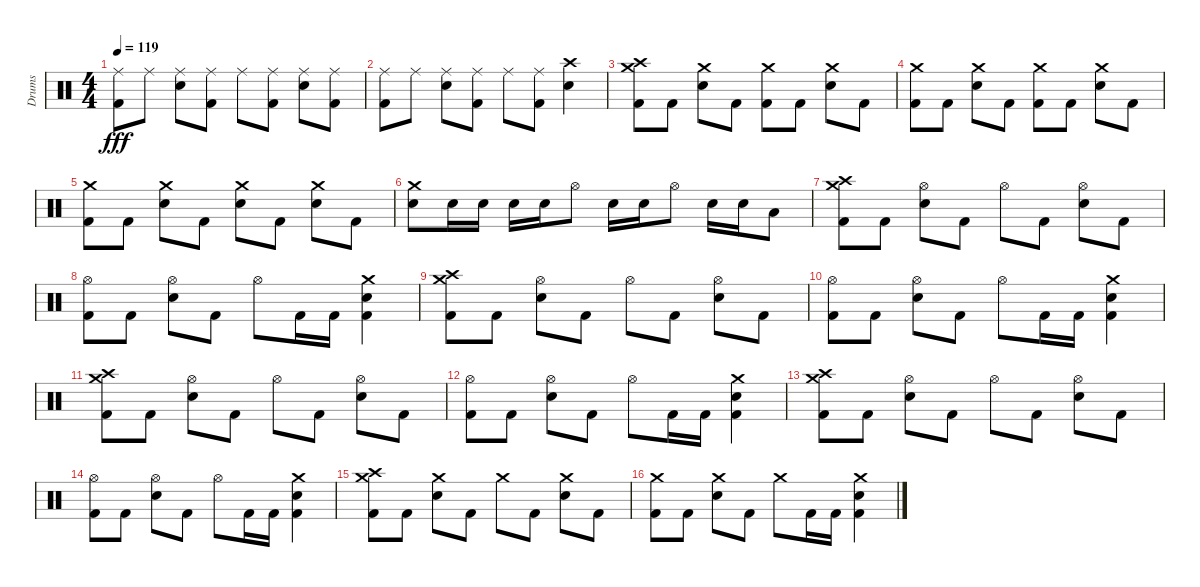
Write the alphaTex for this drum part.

\track ("Drums" "Drums") {instrument percussion}
\staff {score}
\articulation defaults
\ts (4 4)
\tempo 119
\clef neutral
\ks c
("Ride (middle)" "Kick (hit) 2").8{dy fff} "Ride (middle)".8 ("Ride (middle)" "Snare (hit) 2").8 ("Ride (middle)" "Kick (hit) 2").8 "Ride (middle)".8 ("Ride (middle)" "Kick (hit) 2").8 ("Ride (middle)" "Snare (hit) 2").8 ("Ride (middle)" "Kick (hit) 2").8 |
("Ride (middle)" "Kick (hit) 2").8 "Ride (middle)".8 ("Ride (middle)" "Snare (hit) 2").8 ("Ride (middle)" "Kick (hit) 2").8 "Ride (middle)".8 ("Ride (middle)" "Kick (hit) 2").8 ("Crash high (hit)" "Snare (hit) 2").4 |
("Crash high (hit)" "Crash medium (hit)" "Kick (hit) 2").8 "Kick (hit) 2".8 ("Crash medium (hit)" "Snare (hit) 2").8 "Kick (hit) 2".8 ("Crash medium (hit)" "Kick (hit) 2").8 "Kick (hit) 2".8 ("Crash medium (hit)" "Snare (hit) 2").8 "Kick (hit) 2".8 |
("Crash medium (hit)" "Kick (hit) 2").8 "Kick (hit) 2".8 ("Crash medium (hit)" "Snare (hit) 2").8 "Kick (hit) 2".8 ("Crash medium (hit)" "Kick (hit) 2").8 "Kick (hit) 2".8 ("Crash medium (hit)" "Snare (hit) 2").8 "Kick (hit) 2".8 |
("Crash medium (hit)" "Kick (hit) 2").8 "Kick (hit) 2".8 ("Crash medium (hit)" "Snare (hit) 2").8 "Kick (hit) 2".8 ("Crash medium (hit)" "Snare (hit) 2").8 "Kick (hit) 2".8 ("Crash medium (hit)" "Snare (hit) 2").8 "Kick (hit) 2".8 |
("Crash medium (hit)" "Snare (hit) 2").8 "Snare (hit) 2".16 "Snare (hit) 2".16 "Snare (hit) 2".16 "Snare (hit) 2".16 "Hi-Hat (open)".8 "Snare (hit) 2".16 "Snare (hit) 2".16 "Hi-Hat (open)".8 "Snare (hit) 2".16 "Snare (hit) 2".16 "Low Tom (hit)".8 |
("Crash medium (hit)" "Crash high (hit)" "Kick (hit) 2").8 "Kick (hit) 2".8 ("Hi-Hat (open)" "Snare (hit) 2").8 "Kick (hit) 2".8 "Hi-Hat (open)".8 "Kick (hit) 2".8 ("Hi-Hat (open)" "Snare (hit) 2").8 "Kick (hit) 2".8 |
("Hi-Hat (open)" "Kick (hit) 2").8 "Kick (hit) 2".8 ("Snare (hit) 2" "Hi-Hat (open)").8 "Kick (hit) 2".8 "Hi-Hat (open)".8 "Kick (hit) 2".16 "Kick (hit) 2".16 ("Crash medium (hit)" "Snare (hit) 2" "Kick (hit) 2").4 |
("Crash medium (hit)" "Crash high (hit)" "Kick (hit) 2").8 "Kick (hit) 2".8 ("Hi-Hat (open)" "Snare (hit) 2").8 "Kick (hit) 2".8 "Hi-Hat (open)".8 "Kick (hit) 2".8 ("Hi-Hat (open)" "Snare (hit) 2").8 "Kick (hit) 2".8 |
("Hi-Hat (open)" "Kick (hit) 2").8 "Kick (hit) 2".8 ("Snare (hit) 2" "Hi-Hat (open)").8 "Kick (hit) 2".8 "Hi-Hat (open)".8 "Kick (hit) 2".16 "Kick (hit) 2".16 ("Crash medium (hit)" "Snare (hit) 2" "Kick (hit) 2").4 |
("Crash medium (hit)" "Crash high (hit)" "Kick (hit) 2").8 "Kick (hit) 2".8 ("Hi-Hat (open)" "Snare (hit) 2").8 "Kick (hit) 2".8 "Hi-Hat (open)".8 "Kick (hit) 2".8 ("Hi-Hat (open)" "Snare (hit) 2").8 "Kick (hit) 2".8 |
("Hi-Hat (open)" "Kick (hit) 2").8 "Kick (hit) 2".8 ("Snare (hit) 2" "Hi-Hat (open)").8 "Kick (hit) 2".8 "Hi-Hat (open)".8 "Kick (hit) 2".16 "Kick (hit) 2".16 ("Crash medium (hit)" "Snare (hit) 2" "Kick (hit) 2").4 |
("Crash medium (hit)" "Crash high (hit)" "Kick (hit) 2").8 "Kick (hit) 2".8 ("Hi-Hat (open)" "Snare (hit) 2").8 "Kick (hit) 2".8 "Hi-Hat (open)".8 "Kick (hit) 2".8 ("Hi-Hat (open)" "Snare (hit) 2").8 "Kick (hit) 2".8 |
("Hi-Hat (open)" "Kick (hit) 2").8 "Kick (hit) 2".8 ("Snare (hit) 2" "Hi-Hat (open)").8 "Kick (hit) 2".8 "Hi-Hat (open)".8 "Kick (hit) 2".16 "Kick (hit) 2".16 ("Crash medium (hit)" "Snare (hit) 2" "Kick (hit) 2").4 |
("Crash medium (hit)" "Crash high (hit)" "Kick (hit) 2").8 "Kick (hit) 2".8 ("Crash medium (hit)" "Snare (hit) 2").8 "Kick (hit) 2".8 "Crash medium (hit)".8 "Kick (hit) 2".8 ("Crash medium (hit)" "Snare (hit) 2").8 "Kick (hit) 2".8 |
("Crash medium (hit)" "Kick (hit) 2").8 "Kick (hit) 2".8 ("Snare (hit) 2" "Crash medium (hit)").8 "Kick (hit) 2".8 "Crash medium (hit)".8 "Kick (hit) 2".16 "Kick (hit) 2".16 ("Crash medium (hit)" "Snare (hit) 2" "Kick (hit) 2").4
